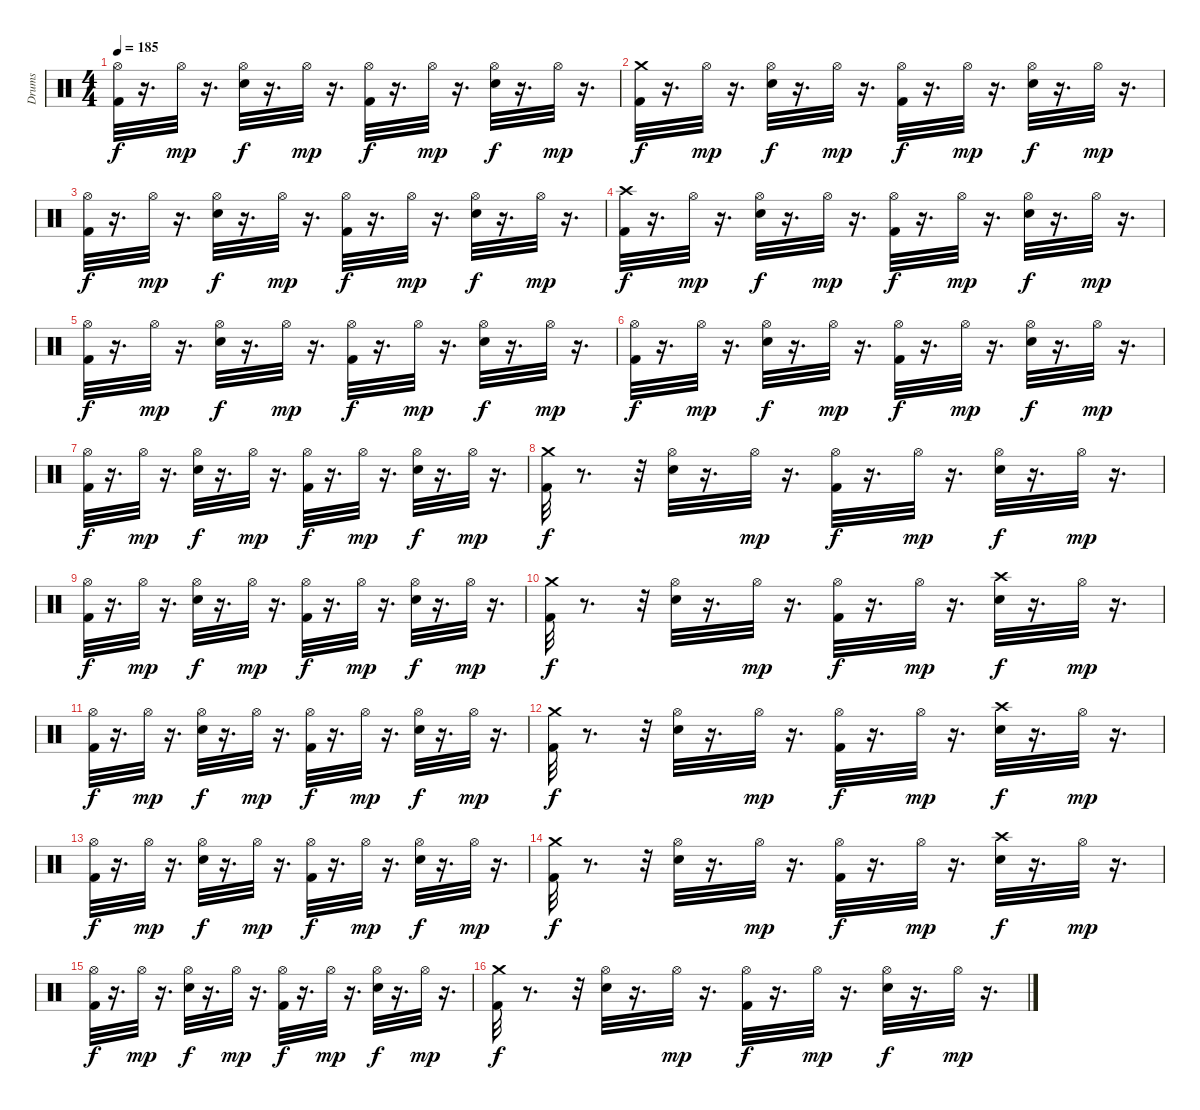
\track ("Drums" "Drums") {instrument percussion}
\staff {score}
\articulation defaults
\ts (4 4)
\tempo 185
\clef neutral
\ks c
("Hi-Hat (open)" "Kick (hit) 2").32{dy f} r.16{d} "Hi-Hat (open)".32{dy mp} r.16{d} ("Hi-Hat (open)" "Electric Snare (hit)").32{dy f} r.16{d} "Hi-Hat (open)".32{dy mp} r.16{d} ("Hi-Hat (open)" "Kick (hit) 2").32{dy f} r.16{d} "Hi-Hat (open)".32{dy mp} r.16{d} ("Hi-Hat (open)" "Electric Snare (hit)").32{dy f} r.16{d} "Hi-Hat (open)".32{dy mp} r.16{d} |
("Crash medium (hit)" "Kick (hit) 2").32{dy f} r.16{d} "Hi-Hat (open)".32{dy mp} r.16{d} ("Hi-Hat (open)" "Electric Snare (hit)").32{dy f} r.16{d} "Hi-Hat (open)".32{dy mp} r.16{d} ("Hi-Hat (open)" "Kick (hit) 2").32{dy f} r.16{d} "Hi-Hat (open)".32{dy mp} r.16{d} ("Hi-Hat (open)" "Electric Snare (hit)").32{dy f} r.16{d} "Hi-Hat (open)".32{dy mp} r.16{d} |
("Hi-Hat (open)" "Kick (hit) 2").32{dy f} r.16{d} "Hi-Hat (open)".32{dy mp} r.16{d} ("Hi-Hat (open)" "Electric Snare (hit)").32{dy f} r.16{d} "Hi-Hat (open)".32{dy mp} r.16{d} ("Hi-Hat (open)" "Kick (hit) 2").32{dy f} r.16{d} "Hi-Hat (open)".32{dy mp} r.16{d} ("Hi-Hat (open)" "Electric Snare (hit)").32{dy f} r.16{d} "Hi-Hat (open)".32{dy mp} r.16{d} |
("Crash high (hit)" "Kick (hit) 2").32{dy f} r.16{d} "Hi-Hat (open)".32{dy mp} r.16{d} ("Hi-Hat (open)" "Electric Snare (hit)").32{dy f} r.16{d} "Hi-Hat (open)".32{dy mp} r.16{d} ("Hi-Hat (open)" "Kick (hit) 2").32{dy f} r.16{d} "Hi-Hat (open)".32{dy mp} r.16{d} ("Hi-Hat (open)" "Electric Snare (hit)").32{dy f} r.16{d} "Hi-Hat (open)".32{dy mp} r.16{d} |
("Hi-Hat (open)" "Kick (hit) 2").32{dy f} r.16{d} "Hi-Hat (open)".32{dy mp} r.16{d} ("Hi-Hat (open)" "Electric Snare (hit)").32{dy f} r.16{d} "Hi-Hat (open)".32{dy mp} r.16{d} ("Hi-Hat (open)" "Kick (hit) 2").32{dy f} r.16{d} "Hi-Hat (open)".32{dy mp} r.16{d} ("Hi-Hat (open)" "Electric Snare (hit)").32{dy f} r.16{d} "Hi-Hat (open)".32{dy mp} r.16{d} |
("Hi-Hat (open)" "Kick (hit) 2").32{dy f} r.16{d} "Hi-Hat (open)".32{dy mp} r.16{d} ("Hi-Hat (open)" "Electric Snare (hit)").32{dy f} r.16{d} "Hi-Hat (open)".32{dy mp} r.16{d} ("Hi-Hat (open)" "Kick (hit) 2").32{dy f} r.16{d} "Hi-Hat (open)".32{dy mp} r.16{d} ("Hi-Hat (open)" "Electric Snare (hit)").32{dy f} r.16{d} "Hi-Hat (open)".32{dy mp} r.16{d} |
("Hi-Hat (open)" "Kick (hit) 2").32{dy f} r.16{d} "Hi-Hat (open)".32{dy mp} r.16{d} ("Hi-Hat (open)" "Electric Snare (hit)").32{dy f} r.16{d} "Hi-Hat (open)".32{dy mp} r.16{d} ("Hi-Hat (open)" "Kick (hit) 2").32{dy f} r.16{d} "Hi-Hat (open)".32{dy mp} r.16{d} ("Hi-Hat (open)" "Electric Snare (hit)").32{dy f} r.16{d} "Hi-Hat (open)".32{dy mp} r.16{d} |
("Crash medium (hit)" "Kick (hit) 2").32{dy f} r.8{d} r.32 ("Hi-Hat (open)" "Electric Snare (hit)").32 r.16{d} "Hi-Hat (open)".32{dy mp} r.16{d} ("Hi-Hat (open)" "Kick (hit) 2").32{dy f} r.16{d} "Hi-Hat (open)".32{dy mp} r.16{d} ("Hi-Hat (open)" "Electric Snare (hit)").32{dy f} r.16{d} "Hi-Hat (open)".32{dy mp} r.16{d} |
("Hi-Hat (open)" "Kick (hit) 2").32{dy f} r.16{d} "Hi-Hat (open)".32{dy mp} r.16{d} ("Hi-Hat (open)" "Electric Snare (hit)").32{dy f} r.16{d} "Hi-Hat (open)".32{dy mp} r.16{d} ("Hi-Hat (open)" "Kick (hit) 2").32{dy f} r.16{d} "Hi-Hat (open)".32{dy mp} r.16{d} ("Hi-Hat (open)" "Electric Snare (hit)").32{dy f} r.16{d} "Hi-Hat (open)".32{dy mp} r.16{d} |
("Crash medium (hit)" "Kick (hit) 2").32{dy f} r.8{d} r.32 ("Hi-Hat (open)" "Electric Snare (hit)").32 r.16{d} "Hi-Hat (open)".32{dy mp} r.16{d} ("Hi-Hat (open)" "Kick (hit) 2").32{dy f} r.16{d} "Hi-Hat (open)".32{dy mp} r.16{d} ("Crash high (hit)" "Electric Snare (hit)").32{dy f} r.16{d} "Hi-Hat (open)".32{dy mp} r.16{d} |
("Hi-Hat (open)" "Kick (hit) 2").32{dy f} r.16{d} "Hi-Hat (open)".32{dy mp} r.16{d} ("Hi-Hat (open)" "Electric Snare (hit)").32{dy f} r.16{d} "Hi-Hat (open)".32{dy mp} r.16{d} ("Hi-Hat (open)" "Kick (hit) 2").32{dy f} r.16{d} "Hi-Hat (open)".32{dy mp} r.16{d} ("Hi-Hat (open)" "Electric Snare (hit)").32{dy f} r.16{d} "Hi-Hat (open)".32{dy mp} r.16{d} |
("Crash medium (hit)" "Kick (hit) 2").32{dy f} r.8{d} r.32 ("Hi-Hat (open)" "Electric Snare (hit)").32 r.16{d} "Hi-Hat (open)".32{dy mp} r.16{d} ("Hi-Hat (open)" "Kick (hit) 2").32{dy f} r.16{d} "Hi-Hat (open)".32{dy mp} r.16{d} ("Crash high (hit)" "Electric Snare (hit)").32{dy f} r.16{d} "Hi-Hat (open)".32{dy mp} r.16{d} |
("Hi-Hat (open)" "Kick (hit) 2").32{dy f} r.16{d} "Hi-Hat (open)".32{dy mp} r.16{d} ("Hi-Hat (open)" "Electric Snare (hit)").32{dy f} r.16{d} "Hi-Hat (open)".32{dy mp} r.16{d} ("Hi-Hat (open)" "Kick (hit) 2").32{dy f} r.16{d} "Hi-Hat (open)".32{dy mp} r.16{d} ("Hi-Hat (open)" "Electric Snare (hit)").32{dy f} r.16{d} "Hi-Hat (open)".32{dy mp} r.16{d} |
("Crash medium (hit)" "Kick (hit) 2").32{dy f} r.8{d} r.32 ("Hi-Hat (open)" "Electric Snare (hit)").32 r.16{d} "Hi-Hat (open)".32{dy mp} r.16{d} ("Hi-Hat (open)" "Kick (hit) 2").32{dy f} r.16{d} "Hi-Hat (open)".32{dy mp} r.16{d} ("Crash high (hit)" "Electric Snare (hit)").32{dy f} r.16{d} "Hi-Hat (open)".32{dy mp} r.16{d} |
("Hi-Hat (open)" "Kick (hit) 2").32{dy f} r.16{d} "Hi-Hat (open)".32{dy mp} r.16{d} ("Hi-Hat (open)" "Electric Snare (hit)").32{dy f} r.16{d} "Hi-Hat (open)".32{dy mp} r.16{d} ("Hi-Hat (open)" "Kick (hit) 2").32{dy f} r.16{d} "Hi-Hat (open)".32{dy mp} r.16{d} ("Hi-Hat (open)" "Electric Snare (hit)").32{dy f} r.16{d} "Hi-Hat (open)".32{dy mp} r.16{d} |
("Crash medium (hit)" "Kick (hit) 2").32{dy f} r.8{d} r.32 ("Hi-Hat (open)" "Electric Snare (hit)").32 r.16{d} "Hi-Hat (open)".32{dy mp} r.16{d} ("Hi-Hat (open)" "Kick (hit) 2").32{dy f} r.16{d} "Hi-Hat (open)".32{dy mp} r.16{d} ("Hi-Hat (open)" "Electric Snare (hit)").32{dy f} r.16{d} "Hi-Hat (open)".32{dy mp} r.16{d}
